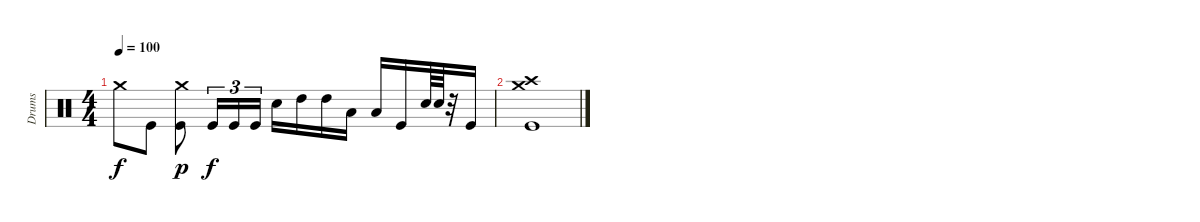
\track ("Drums" "Drums") {instrument percussion}
\staff {score}
\articulation defaults
\ts (4 4)
\tempo 100
\clef neutral
\ks c "Crash medium (hit)".8{dy f} "Kick (hit)".8
("Crash medium (hit)" "Kick (hit)").8{dy p} "Kick (hit)".16{tu (3 2) dy f} "Kick (hit)".16{tu (3 2)} "Kick (hit)".16{tu (3 2)} "Electric Snare (hit)".16 "High Tom (hit)".16 "High Tom (hit)".16 "Low Tom (hit)".16 "Low Tom (hit)".16 "Kick (hit)".16 "Electric Snare (hit)".64 "Electric Snare (hit)".64 r.32 "Kick (hit)".16 |
("Crash high (hit)" "Crash medium (hit)" "Kick (hit)").1
